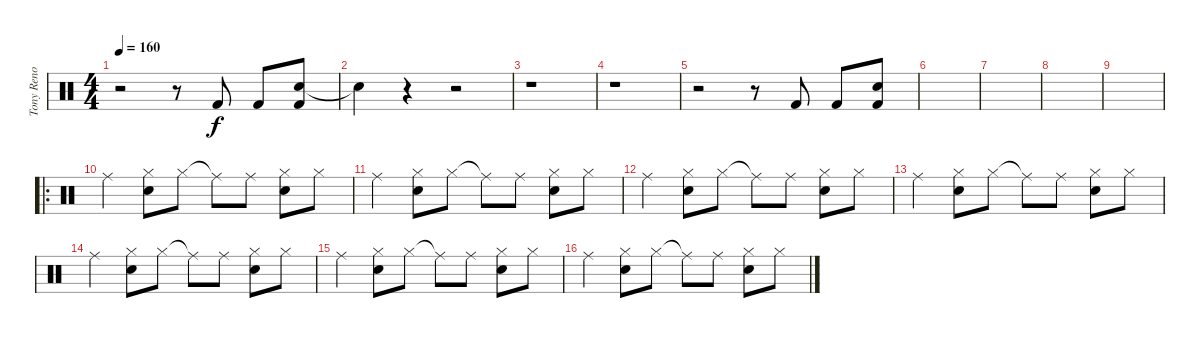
\track ("Tony Reno" "Tony Reno") {instrument percussion}
\staff {score}
\articulation defaults
\ts (4 4)
\tempo 160
\clef neutral
\ks c
r.2{dy f} r.8 "Kick (hit) 2".8 "Kick (hit) 2".8 ("Snare (hit) 2" "Kick (hit) 2").8 |
"Snare (hit)"{t}.4 r.4 r.2 |
r.1 |
r.1 |
r.2 r.8 "Kick (hit) 2".8 "Kick (hit) 2".8 ("Snare (hit) 2" "Kick (hit) 2").8 |
|
|
|
|
\ro "Ride (middle)".4
("Hi-Hat (closed)" "Snare (hit) 2").8 "Hi-Hat (closed)".8 "Ride (middle)"{t}.8 "Ride (middle)".8 ("Hi-Hat (closed)" "Snare (hit) 2").8 "Hi-Hat (closed)".8 |
"Ride (middle)".4 ("Hi-Hat (closed)" "Snare (hit) 2").8 "Hi-Hat (closed)".8 "Ride (middle)"{t}.8 "Ride (middle)".8 ("Hi-Hat (closed)" "Snare (hit) 2").8 "Hi-Hat (closed)".8 |
"Ride (middle)".4 ("Hi-Hat (closed)" "Snare (hit) 2").8 "Hi-Hat (closed)".8 "Ride (middle)"{t}.8 "Ride (middle)".8 ("Hi-Hat (closed)" "Snare (hit) 2").8 "Hi-Hat (closed)".8 |
"Ride (middle)".4 ("Hi-Hat (closed)" "Snare (hit) 2").8 "Hi-Hat (closed)".8 "Ride (middle)"{t}.8 "Ride (middle)".8 ("Hi-Hat (closed)" "Snare (hit) 2").8 "Hi-Hat (closed)".8 |
"Ride (middle)".4 ("Hi-Hat (closed)" "Snare (hit) 2").8 "Hi-Hat (closed)".8 "Ride (middle)"{t}.8 "Ride (middle)".8 ("Hi-Hat (closed)" "Snare (hit) 2").8 "Hi-Hat (closed)".8 |
"Ride (middle)".4 ("Hi-Hat (closed)" "Snare (hit) 2").8 "Hi-Hat (closed)".8 "Ride (middle)"{t}.8 "Ride (middle)".8 ("Hi-Hat (closed)" "Snare (hit) 2").8 "Hi-Hat (closed)".8 |
"Ride (middle)".4 ("Hi-Hat (closed)" "Snare (hit) 2").8 "Hi-Hat (closed)".8 "Ride (middle)"{t}.8 "Ride (middle)".8 ("Hi-Hat (closed)" "Snare (hit) 2").8 "Hi-Hat (closed)".8
